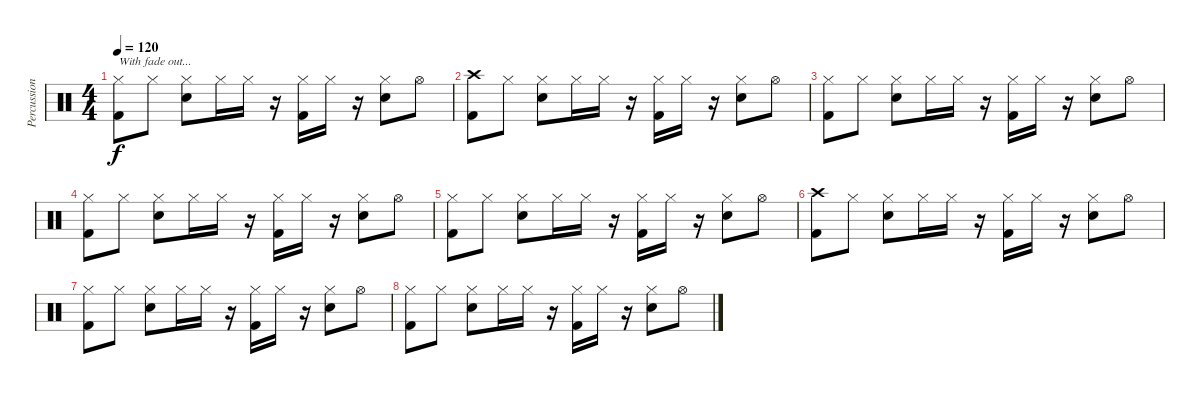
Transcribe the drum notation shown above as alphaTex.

\track ("Percussions" "Percussion") {instrument percussion}
\staff {score}
\articulation defaults
\ts (4 4)
\tempo 120
\clef neutral
\ks c
("Hi-Hat (closed)" "Kick (hit) 2").8{txt "With fade out..." dy f} "Hi-Hat (closed)".8 ("Hi-Hat (closed)" "Snare (hit) 2").8 "Hi-Hat (closed)".16 "Hi-Hat (closed)".16 r.16 ("Hi-Hat (closed)" "Kick (hit) 2").16 "Hi-Hat (closed)".16 r.16 ("Hi-Hat (closed)" "Snare (hit) 2").8 "Hi-Hat (open)".8 |
("Crash high (hit)" "Kick (hit) 2").8 "Hi-Hat (closed)".8 ("Hi-Hat (closed)" "Snare (hit) 2").8 "Hi-Hat (closed)".16 "Hi-Hat (closed)".16 r.16 ("Hi-Hat (closed)" "Kick (hit) 2").16 "Hi-Hat (closed)".16 r.16 ("Hi-Hat (closed)" "Snare (hit) 2").8 "Hi-Hat (open)".8 |
("Hi-Hat (closed)" "Kick (hit) 2").8 "Hi-Hat (closed)".8 ("Hi-Hat (closed)" "Snare (hit) 2").8 "Hi-Hat (closed)".16 "Hi-Hat (closed)".16 r.16 ("Hi-Hat (closed)" "Kick (hit) 2").16 "Hi-Hat (closed)".16 r.16 ("Hi-Hat (closed)" "Snare (hit) 2").8 "Hi-Hat (open)".8 |
("Hi-Hat (closed)" "Kick (hit) 2").8 "Hi-Hat (closed)".8 ("Hi-Hat (closed)" "Snare (hit) 2").8 "Hi-Hat (closed)".16 "Hi-Hat (closed)".16 r.16 ("Hi-Hat (closed)" "Kick (hit) 2").16 "Hi-Hat (closed)".16 r.16 ("Hi-Hat (closed)" "Snare (hit) 2").8 "Hi-Hat (open)".8 |
("Hi-Hat (closed)" "Kick (hit) 2").8 "Hi-Hat (closed)".8 ("Hi-Hat (closed)" "Snare (hit) 2").8 "Hi-Hat (closed)".16 "Hi-Hat (closed)".16 r.16 ("Hi-Hat (closed)" "Kick (hit) 2").16 "Hi-Hat (closed)".16 r.16 ("Hi-Hat (closed)" "Snare (hit) 2").8 "Hi-Hat (open)".8 |
("Crash high (hit)" "Kick (hit) 2").8 "Hi-Hat (closed)".8 ("Hi-Hat (closed)" "Snare (hit) 2").8 "Hi-Hat (closed)".16 "Hi-Hat (closed)".16 r.16 ("Hi-Hat (closed)" "Kick (hit) 2").16 "Hi-Hat (closed)".16 r.16 ("Hi-Hat (closed)" "Snare (hit) 2").8 "Hi-Hat (open)".8 |
("Hi-Hat (closed)" "Kick (hit) 2").8 "Hi-Hat (closed)".8 ("Hi-Hat (closed)" "Snare (hit) 2").8 "Hi-Hat (closed)".16 "Hi-Hat (closed)".16 r.16 ("Hi-Hat (closed)" "Kick (hit) 2").16 "Hi-Hat (closed)".16 r.16 ("Hi-Hat (closed)" "Snare (hit) 2").8 "Hi-Hat (open)".8 |
("Hi-Hat (closed)" "Kick (hit) 2").8 "Hi-Hat (closed)".8 ("Hi-Hat (closed)" "Snare (hit) 2").8 "Hi-Hat (closed)".16 "Hi-Hat (closed)".16 r.16 ("Hi-Hat (closed)" "Kick (hit) 2").16 "Hi-Hat (closed)".16 r.16 ("Hi-Hat (closed)" "Snare (hit) 2").8 "Hi-Hat (open)".8
